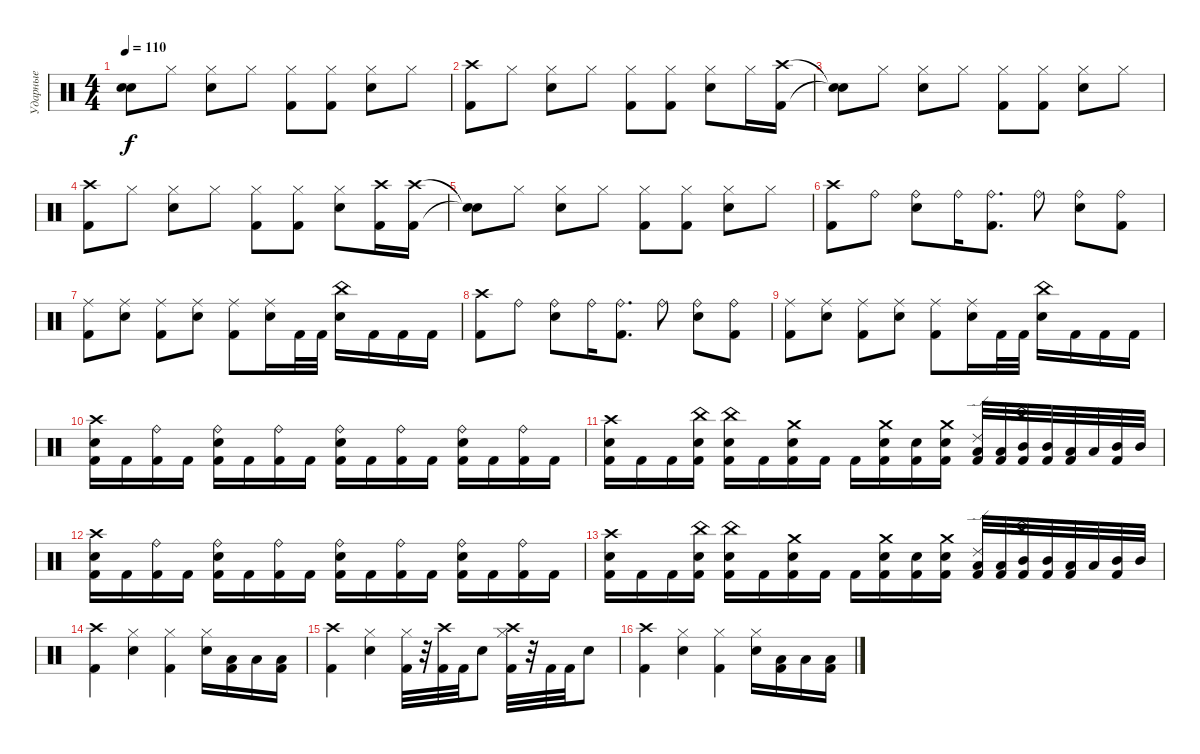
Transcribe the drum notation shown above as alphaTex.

\track ("Ударные" "Ударные") {instrument percussion}
\staff {score}
\articulation defaults
\ts (4 4)
\tempo 110
\clef neutral
\ks c
("Snare (hit)"{t} "Snare (hit)"{t}).8{dy f} "Hi-Hat (closed)".8 ("Hi-Hat (closed)" "Electric Snare (hit)").8 "Hi-Hat (closed)".8 ("Hi-Hat (closed)" "Kick (hit) 2").8 ("Hi-Hat (closed)" "Kick (hit) 2").8 ("Hi-Hat (closed)" "Electric Snare (hit)").8 "Hi-Hat (closed)".8 |
("Kick (hit) 2" "Crash high (hit)").8 "Hi-Hat (closed)".8 ("Electric Snare (hit)" "Hi-Hat (closed)").8 "Hi-Hat (closed)".8 ("Kick (hit) 2" "Hi-Hat (closed)").8 ("Kick (hit) 2" "Hi-Hat (closed)").8 ("Electric Snare (hit)" "Hi-Hat (closed)").8 "Hi-Hat (closed)".16 ("Kick (hit) 2" "Crash high (hit)").16 |
("Snare (hit)"{t} "Snare (hit)"{t}).8 "Hi-Hat (closed)".8 ("Hi-Hat (closed)" "Electric Snare (hit)").8 "Hi-Hat (closed)".8 ("Hi-Hat (closed)" "Kick (hit) 2").8 ("Hi-Hat (closed)" "Kick (hit) 2").8 ("Hi-Hat (closed)" "Electric Snare (hit)").8 "Hi-Hat (closed)".8 |
("Kick (hit) 2" "Crash high (hit)").8 "Hi-Hat (closed)".8 ("Electric Snare (hit)" "Hi-Hat (closed)").8 "Hi-Hat (closed)".8 ("Kick (hit) 2" "Hi-Hat (closed)").8 ("Kick (hit) 2" "Hi-Hat (closed)").8 ("Electric Snare (hit)" "Hi-Hat (closed)").8 ("Kick (hit) 2" "Crash high (hit)").16 ("Kick (hit) 2" "Crash high (hit)").16 |
("Snare (hit)"{t} "Snare (hit)"{t}).8 "Hi-Hat (closed)".8 ("Hi-Hat (closed)" "Electric Snare (hit)").8 "Hi-Hat (closed)".8 ("Hi-Hat (closed)" "Kick (hit) 2").8 ("Hi-Hat (closed)" "Kick (hit) 2").8 ("Hi-Hat (closed)" "Electric Snare (hit)").8 "Hi-Hat (closed)".8 |
("Kick (hit) 2" "Crash high (hit)").8 "Ride (bell)".8 ("Electric Snare (hit)" "Ride (bell)").8 "Ride (bell)".16 ("Kick (hit) 2" "Ride (bell)").8{d} "Ride (bell)".8 ("Electric Snare (hit)" "Ride (bell)").8 ("Kick (hit) 2" "Ride (bell)").8 |
("Kick (hit) 2" "Ride (middle)").8 ("Electric Snare (hit)" "Ride (middle)").8 ("Kick (hit) 2" "Ride (middle)").8 ("Electric Snare (hit)" "Ride (middle)").8 ("Kick (hit) 2" "Ride (middle)").8 ("Electric Snare (hit)" "Ride (middle)").16 "Kick (hit) 2".32 "Kick (hit) 2".32 ("Electric Snare (hit)" "China (hit)").16 "Kick (hit) 2".16 "Kick (hit) 2".16 "Kick (hit) 2".16 |
("Kick (hit) 2" "Crash high (hit)").8 "Ride (bell)".8 ("Electric Snare (hit)" "Ride (bell)").8 "Ride (bell)".16 ("Kick (hit) 2" "Ride (bell)").8{d} "Ride (bell)".8 ("Electric Snare (hit)" "Ride (bell)").8 ("Kick (hit) 2" "Ride (bell)").8 |
("Kick (hit) 2" "Ride (middle)").8 ("Electric Snare (hit)" "Ride (middle)").8 ("Kick (hit) 2" "Ride (middle)").8 ("Electric Snare (hit)" "Ride (middle)").8 ("Kick (hit) 2" "Ride (middle)").8 ("Electric Snare (hit)" "Ride (middle)").16 "Kick (hit) 2".32 "Kick (hit) 2".32 ("Electric Snare (hit)" "China (hit)").16 "Kick (hit) 2".16 "Kick (hit) 2".16 "Kick (hit) 2".16 |
("Kick (hit) 2" "Electric Snare (hit)" "Crash high (hit)").16 "Kick (hit) 2".16 ("Kick (hit) 2" "Ride (bell)").16 "Kick (hit) 2".16 ("Kick (hit) 2" "Electric Snare (hit)" "Ride (bell)").16 "Kick (hit) 2".16 ("Kick (hit) 2" "Ride (bell)").16 "Kick (hit) 2".16 ("Kick (hit) 2" "Electric Snare (hit)" "Ride (bell)").16 "Kick (hit) 2".16 ("Kick (hit) 2" "Ride (bell)").16 "Kick (hit) 2".16 ("Kick (hit) 2" "Electric Snare (hit)" "Ride (bell)").16 "Kick (hit) 2".16 ("Kick (hit) 2" "Ride (bell)").16 "Kick (hit) 2".16 |
("Kick (hit) 2" "Electric Snare (hit)" "Crash high (hit)").16 "Kick (hit) 2".16 "Kick (hit) 2".16 ("Kick (hit) 2" "Electric Snare (hit)" "China (hit)").16 ("Kick (hit) 2" "Electric Snare (hit)" "China (hit)").16 "Kick (hit) 2".16 ("Kick (hit) 2" "Electric Snare (hit)" "Crash medium (hit)").16 "Kick (hit) 2".16 "Kick (hit) 2".16 ("Kick (hit) 2" "Electric Snare (hit)" "Crash medium (hit)").16 ("Kick (hit) 2" "Electric Snare (hit)").16 ("Kick (hit) 2" "Electric Snare (hit)" "Crash medium (hit)").16 ("Kick (hit) 2" "Low Tom (hit)" "Ride (edge) 2").32 ("Kick (hit) 2" "Low Tom (hit)").32 ("Kick (hit) 2" "Mid Tom (hit)" "China (hit)").32 ("Kick (hit) 2" "Mid Tom (hit)").32 ("Kick (hit) 2" "Low Tom (hit)").32 "Low Tom (hit)".32 ("Kick (hit) 2" "Mid Tom (hit)").32 "Mid Tom (hit)".32 |
("Kick (hit) 2" "Electric Snare (hit)" "Crash high (hit)").16 "Kick (hit) 2".16 ("Kick (hit) 2" "Ride (bell)").16 "Kick (hit) 2".16 ("Kick (hit) 2" "Electric Snare (hit)" "Ride (bell)").16 "Kick (hit) 2".16 ("Kick (hit) 2" "Ride (bell)").16 "Kick (hit) 2".16 ("Kick (hit) 2" "Electric Snare (hit)" "Ride (bell)").16 "Kick (hit) 2".16 ("Kick (hit) 2" "Ride (bell)").16 "Kick (hit) 2".16 ("Kick (hit) 2" "Electric Snare (hit)" "Ride (bell)").16 "Kick (hit) 2".16 ("Kick (hit) 2" "Ride (bell)").16 "Kick (hit) 2".16 |
("Kick (hit) 2" "Electric Snare (hit)" "Crash high (hit)").16 "Kick (hit) 2".16 "Kick (hit) 2".16 ("Kick (hit) 2" "Electric Snare (hit)" "China (hit)").16 ("Kick (hit) 2" "Electric Snare (hit)" "China (hit)").16 "Kick (hit) 2".16 ("Kick (hit) 2" "Electric Snare (hit)" "Crash medium (hit)").16 "Kick (hit) 2".16 "Kick (hit) 2".16 ("Kick (hit) 2" "Electric Snare (hit)" "Crash medium (hit)").16 ("Kick (hit) 2" "Electric Snare (hit)").16 ("Kick (hit) 2" "Electric Snare (hit)" "Crash medium (hit)").16 ("Kick (hit) 2" "Low Tom (hit)" "Ride (edge) 2").32 ("Kick (hit) 2" "Low Tom (hit)").32 ("Kick (hit) 2" "Mid Tom (hit)" "China (hit)").32 ("Kick (hit) 2" "Mid Tom (hit)").32 ("Kick (hit) 2" "Low Tom (hit)").32 "Low Tom (hit)".32 ("Kick (hit) 2" "Mid Tom (hit)").32 "Mid Tom (hit)".32 |
("Crash high (hit)" "Kick (hit) 2").4 ("Hi-Hat (closed)" "Electric Snare (hit)").4 ("Kick (hit) 2" "Hi-Hat (closed)").4 ("Hi-Hat (closed)" "Electric Snare (hit)").16 ("Kick (hit) 2" "Low Tom (hit)").16 "Low Tom (hit)".16 ("Kick (hit) 2" "Low Tom (hit)").16 |
("Crash high (hit)" "Kick (hit) 2").4 ("Hi-Hat (closed)" "Electric Snare (hit)").4 ("Kick (hit) 2" "Hi-Hat (closed)").32 r.32 ("Kick (hit) 2" "Crash high (hit)").32 "Kick (hit) 2".32 "Electric Snare (hit)".8 ("Hi-Hat (closed)" "Kick (hit) 2" "Crash high (hit)").32 r.32 "Kick (hit) 2".32 "Kick (hit) 2".32 "Electric Snare (hit)".8 |
("Crash high (hit)" "Kick (hit) 2").4 ("Hi-Hat (closed)" "Electric Snare (hit)").4 ("Kick (hit) 2" "Hi-Hat (closed)").4 ("Hi-Hat (closed)" "Electric Snare (hit)").16 ("Kick (hit) 2" "Low Tom (hit)").16 "Low Tom (hit)".16 ("Kick (hit) 2" "Low Tom (hit)").16
